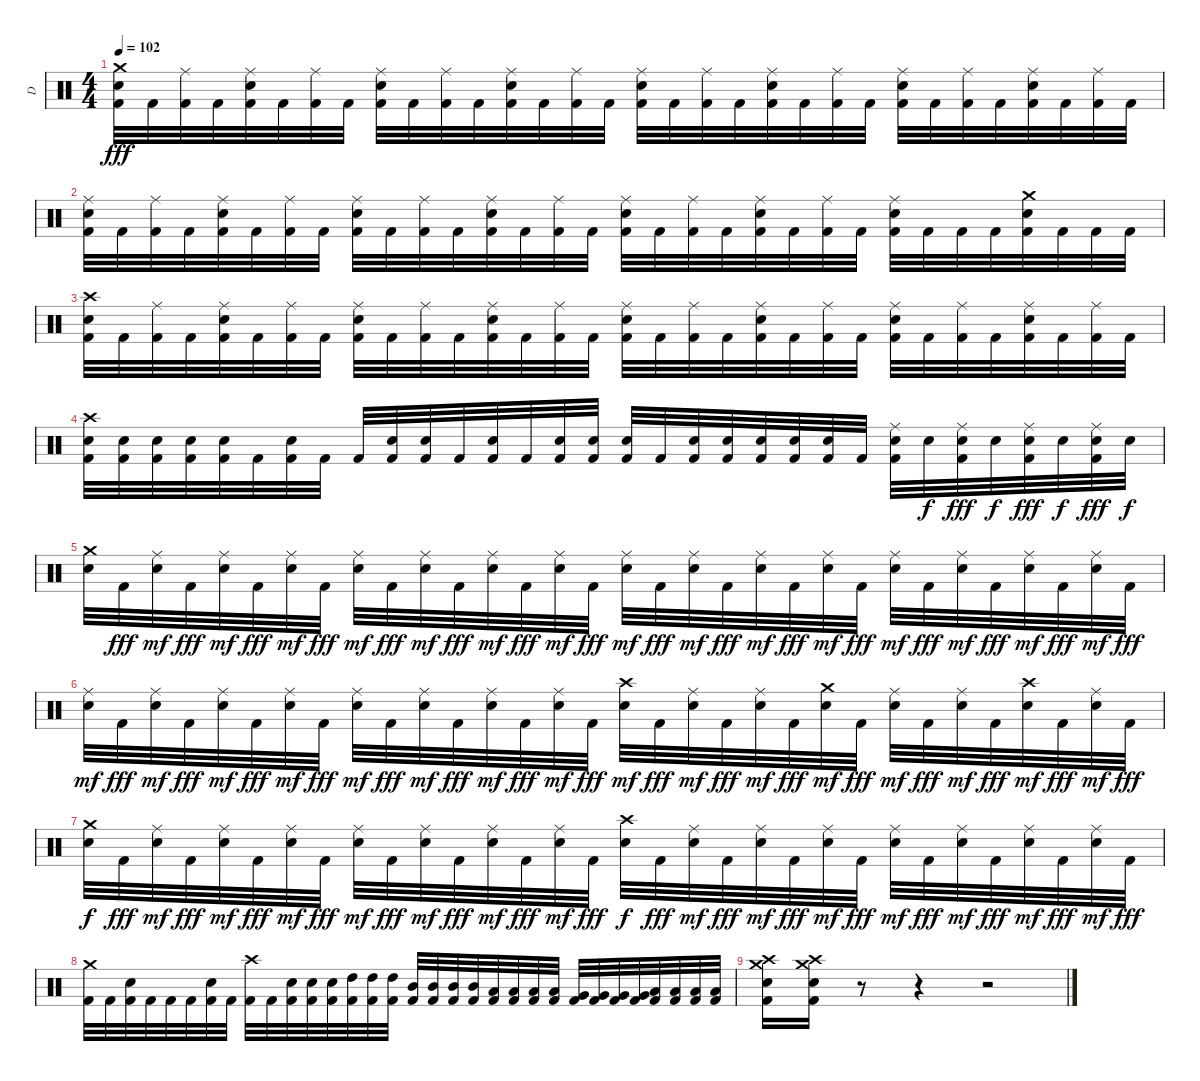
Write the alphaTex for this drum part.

\track ("D" "D") {instrument percussion}
\staff {score}
\articulation defaults
\ts (4 4)
\section ("" "")
\tempo 102
\clef neutral
\ks c
("Crash medium (hit)" "Snare (hit) 2" "Kick (hit) 2").32{dy fff} "Kick (hit) 2".32 ("Ride (middle)" "Kick (hit) 2").32 "Kick (hit) 2".32 ("Ride (middle)" "Snare (hit) 2" "Kick (hit) 2").32 "Kick (hit) 2".32 ("Ride (middle)" "Kick (hit) 2").32 "Kick (hit) 2".32 ("Ride (middle)" "Snare (hit) 2" "Kick (hit) 2").32 "Kick (hit) 2".32 ("Ride (middle)" "Kick (hit) 2").32 "Kick (hit) 2".32 ("Ride (middle)" "Snare (hit) 2" "Kick (hit) 2").32 "Kick (hit) 2".32 ("Ride (middle)" "Kick (hit) 2").32 "Kick (hit) 2".32 ("Ride (middle)" "Snare (hit) 2" "Kick (hit) 2").32 "Kick (hit) 2".32 ("Ride (middle)" "Kick (hit) 2").32 "Kick (hit) 2".32 ("Ride (middle)" "Snare (hit) 2" "Kick (hit) 2").32 "Kick (hit) 2".32 ("Ride (middle)" "Kick (hit) 2").32 "Kick (hit) 2".32 ("Ride (middle)" "Snare (hit) 2" "Kick (hit) 2").32 "Kick (hit) 2".32 ("Ride (middle)" "Kick (hit) 2").32 "Kick (hit) 2".32 ("Ride (middle)" "Snare (hit) 2" "Kick (hit) 2").32 "Kick (hit) 2".32 ("Ride (middle)" "Kick (hit) 2").32 "Kick (hit) 2".32 |
("Ride (middle)" "Snare (hit) 2" "Kick (hit) 2").32 "Kick (hit) 2".32 ("Ride (middle)" "Kick (hit) 2").32 "Kick (hit) 2".32 ("Ride (middle)" "Snare (hit) 2" "Kick (hit) 2").32 "Kick (hit) 2".32 ("Ride (middle)" "Kick (hit) 2").32 "Kick (hit) 2".32 ("Ride (middle)" "Snare (hit) 2" "Kick (hit) 2").32 "Kick (hit) 2".32 ("Ride (middle)" "Kick (hit) 2").32 "Kick (hit) 2".32 ("Ride (middle)" "Snare (hit) 2" "Kick (hit) 2").32 "Kick (hit) 2".32 ("Ride (middle)" "Kick (hit) 2").32 "Kick (hit) 2".32 ("Ride (middle)" "Snare (hit) 2" "Kick (hit) 2").32 "Kick (hit) 2".32 ("Ride (middle)" "Kick (hit) 2").32 "Kick (hit) 2".32 ("Ride (middle)" "Snare (hit) 2" "Kick (hit) 2").32 "Kick (hit) 2".32 ("Ride (middle)" "Kick (hit) 2").32 "Kick (hit) 2".32 ("Ride (middle)" "Snare (hit) 2" "Kick (hit) 2").32 "Kick (hit) 2".32 "Kick (hit) 2".32 "Kick (hit) 2".32 ("Crash medium (hit)" "Snare (hit) 2" "Kick (hit) 2").32 "Kick (hit) 2".32 "Kick (hit) 2".32 "Kick (hit) 2".32 |
("Crash high (hit)" "Snare (hit) 2" "Kick (hit) 2").32 "Kick (hit) 2".32 ("Ride (middle)" "Kick (hit) 2").32 "Kick (hit) 2".32 ("Ride (middle)" "Snare (hit) 2" "Kick (hit) 2").32 "Kick (hit) 2".32 ("Ride (middle)" "Kick (hit) 2").32 "Kick (hit) 2".32 ("Ride (middle)" "Snare (hit) 2" "Kick (hit) 2").32 "Kick (hit) 2".32 ("Ride (middle)" "Kick (hit) 2").32 "Kick (hit) 2".32 ("Ride (middle)" "Snare (hit) 2" "Kick (hit) 2").32 "Kick (hit) 2".32 ("Ride (middle)" "Kick (hit) 2").32 "Kick (hit) 2".32 ("Ride (middle)" "Snare (hit) 2" "Kick (hit) 2").32 "Kick (hit) 2".32 ("Ride (middle)" "Kick (hit) 2").32 "Kick (hit) 2".32 ("Ride (middle)" "Snare (hit) 2" "Kick (hit) 2").32 "Kick (hit) 2".32 ("Ride (middle)" "Kick (hit) 2").32 "Kick (hit) 2".32 ("Ride (middle)" "Snare (hit) 2" "Kick (hit) 2").32 "Kick (hit) 2".32 ("Ride (middle)" "Kick (hit) 2").32 "Kick (hit) 2".32 ("Ride (middle)" "Snare (hit) 2" "Kick (hit) 2").32 "Kick (hit) 2".32 ("Ride (middle)" "Kick (hit) 2").32 "Kick (hit) 2".32 |
("Crash high (hit)" "Snare (hit) 2" "Kick (hit) 2").32 ("Snare (hit) 2" "Kick (hit) 2").32 ("Snare (hit) 2" "Kick (hit) 2").32 ("Snare (hit) 2" "Kick (hit) 2").32 ("Snare (hit) 2" "Kick (hit) 2").32 "Kick (hit) 2".32 ("Snare (hit) 2" "Kick (hit) 2").32 "Kick (hit) 2".32 "Kick (hit) 2".32 ("Snare (hit) 2" "Kick (hit) 2").32 ("Snare (hit) 2" "Kick (hit) 2").32 "Kick (hit) 2".32 ("Snare (hit) 2" "Kick (hit) 2").32 "Kick (hit) 2".32 ("Snare (hit) 2" "Kick (hit) 2").32 ("Snare (hit) 2" "Kick (hit) 2").32 ("Snare (hit) 2" "Kick (hit) 2").32 "Kick (hit) 2".32 ("Snare (hit) 2" "Kick (hit) 2").32 ("Snare (hit) 2" "Kick (hit) 2").32 ("Snare (hit) 2" "Kick (hit) 2").32 ("Snare (hit) 2" "Kick (hit) 2").32 ("Snare (hit) 2" "Kick (hit) 2").32 "Kick (hit) 2".32 ("Ride (middle)" "Snare (hit) 2" "Kick (hit) 2").32 "Snare (hit) 2".32{dy f} ("Ride (middle)" "Snare (hit) 2" "Kick (hit) 2").32{dy fff} "Snare (hit) 2".32{dy f} ("Ride (middle)" "Snare (hit) 2" "Kick (hit) 2").32{dy fff} "Snare (hit) 2".32{dy f} ("Ride (middle)" "Snare (hit) 2" "Kick (hit) 2").32{dy fff} "Snare (hit) 2".32{dy f} |
("Crash medium (hit)" "Snare (hit) 2").32 "Kick (hit) 2".32{dy fff} ("Ride (middle)" "Snare (hit) 2").32{dy mf} "Kick (hit) 2".32{dy fff} ("Ride (middle)" "Snare (hit) 2").32{dy mf} "Kick (hit) 2".32{dy fff} ("Ride (middle)" "Snare (hit) 2").32{dy mf} "Kick (hit) 2".32{dy fff} ("Ride (middle)" "Snare (hit) 2").32{dy mf} "Kick (hit) 2".32{dy fff} ("Ride (middle)" "Snare (hit) 2").32{dy mf} "Kick (hit) 2".32{dy fff} ("Ride (middle)" "Snare (hit) 2").32{dy mf} "Kick (hit) 2".32{dy fff} ("Ride (middle)" "Snare (hit) 2").32{dy mf} "Kick (hit) 2".32{dy fff} ("Ride (middle)" "Snare (hit) 2").32{dy mf} "Kick (hit) 2".32{dy fff} ("Ride (middle)" "Snare (hit) 2").32{dy mf} "Kick (hit) 2".32{dy fff} ("Ride (middle)" "Snare (hit) 2").32{dy mf} "Kick (hit) 2".32{dy fff} ("Ride (middle)" "Snare (hit) 2").32{dy mf} "Kick (hit) 2".32{dy fff} ("Ride (middle)" "Snare (hit) 2").32{dy mf} "Kick (hit) 2".32{dy fff} ("Ride (middle)" "Snare (hit) 2").32{dy mf} "Kick (hit) 2".32{dy fff} ("Ride (middle)" "Snare (hit) 2").32{dy mf} "Kick (hit) 2".32{dy fff} ("Ride (middle)" "Snare (hit) 2").32{dy mf} "Kick (hit) 2".32{dy fff} |
("Ride (middle)" "Snare (hit) 2").32{dy mf} "Kick (hit) 2".32{dy fff} ("Ride (middle)" "Snare (hit) 2").32{dy mf} "Kick (hit) 2".32{dy fff} ("Ride (middle)" "Snare (hit) 2").32{dy mf} "Kick (hit) 2".32{dy fff} ("Ride (middle)" "Snare (hit) 2").32{dy mf} "Kick (hit) 2".32{dy fff} ("Ride (middle)" "Snare (hit) 2").32{dy mf} "Kick (hit) 2".32{dy fff} ("Ride (middle)" "Snare (hit) 2").32{dy mf} "Kick (hit) 2".32{dy fff} ("Ride (middle)" "Snare (hit) 2").32{dy mf} "Kick (hit) 2".32{dy fff} ("Ride (middle)" "Snare (hit) 2").32{dy mf} "Kick (hit) 2".32{dy fff} ("Crash high (hit)" "Snare (hit) 2").32{dy mf} "Kick (hit) 2".32{dy fff} ("Ride (middle)" "Snare (hit) 2").32{dy mf} "Kick (hit) 2".32{dy fff} ("Ride (middle)" "Snare (hit) 2").32{dy mf} "Kick (hit) 2".32{dy fff} ("Crash medium (hit)" "Snare (hit) 2").32{dy mf} "Kick (hit) 2".32{dy fff} ("Ride (middle)" "Snare (hit) 2").32{dy mf} "Kick (hit) 2".32{dy fff} ("Ride (middle)" "Snare (hit) 2").32{dy mf} "Kick (hit) 2".32{dy fff} ("Crash high (hit)" "Snare (hit) 2").32{dy mf} "Kick (hit) 2".32{dy fff} ("Ride (middle)" "Snare (hit) 2").32{dy mf} "Kick (hit) 2".32{dy fff} |
("Crash medium (hit)" "Snare (hit) 2").32{dy f} "Kick (hit) 2".32{dy fff} ("Ride (middle)" "Snare (hit) 2").32{dy mf} "Kick (hit) 2".32{dy fff} ("Ride (middle)" "Snare (hit) 2").32{dy mf} "Kick (hit) 2".32{dy fff} ("Ride (middle)" "Snare (hit) 2").32{dy mf} "Kick (hit) 2".32{dy fff} ("Ride (middle)" "Snare (hit) 2").32{dy mf} "Kick (hit) 2".32{dy fff} ("Ride (middle)" "Snare (hit) 2").32{dy mf} "Kick (hit) 2".32{dy fff} ("Ride (middle)" "Snare (hit) 2").32{dy mf} "Kick (hit) 2".32{dy fff} ("Ride (middle)" "Snare (hit) 2").32{dy mf} "Kick (hit) 2".32{dy fff} ("Crash high (hit)" "Snare (hit) 2").32{dy f} "Kick (hit) 2".32{dy fff} ("Ride (middle)" "Snare (hit) 2").32{dy mf} "Kick (hit) 2".32{dy fff} ("Ride (middle)" "Snare (hit) 2").32{dy mf} "Kick (hit) 2".32{dy fff} ("Ride (middle)" "Snare (hit) 2").32{dy mf} "Kick (hit) 2".32{dy fff} ("Ride (middle)" "Snare (hit) 2").32{dy mf} "Kick (hit) 2".32{dy fff} ("Ride (middle)" "Snare (hit) 2").32{dy mf} "Kick (hit) 2".32{dy fff} ("Ride (middle)" "Snare (hit) 2").32{dy mf} "Kick (hit) 2".32{dy fff} ("Ride (middle)" "Snare (hit) 2").32{dy mf} "Kick (hit) 2".32{dy fff} |
("Crash medium (hit)" "Kick (hit) 2").32 "Kick (hit) 2".32 ("Snare (hit) 2" "Kick (hit) 2").32 "Kick (hit) 2".32 "Kick (hit) 2".32 "Kick (hit) 2".32 ("Snare (hit) 2" "Kick (hit) 2").32 "Kick (hit) 2".32 ("Crash high (hit)" "Kick (hit) 2").32 "Kick (hit) 2".32 ("Snare (hit) 2" "Kick (hit) 2").32 ("Snare (hit) 2" "Kick (hit) 2").32 ("Snare (hit) 2" "Kick (hit) 2").32 ("High Tom (hit)" "Kick (hit) 2").32 ("High Tom (hit)" "Kick (hit) 2").32 ("High Tom (hit)" "Kick (hit) 2").32 ("Mid Tom (hit)" "Kick (hit) 2").32 ("Mid Tom (hit)" "Kick (hit) 2").32 ("Mid Tom (hit)" "Kick (hit) 2").32 ("Mid Tom (hit)" "Kick (hit) 2").32 ("Low Tom (hit)" "Kick (hit) 2").32 ("Low Tom (hit)" "Kick (hit) 2").32 ("Low Tom (hit)" "Kick (hit) 2").32 ("Low Tom (hit)" "Kick (hit) 2").32 ("Very Low Tom (hit)" "Kick (hit) 2").32 ("Very Low Tom (hit)" "Kick (hit) 2").32 ("Very Low Tom (hit)" "Kick (hit) 2").32 ("Very Low Tom (hit)" "Kick (hit) 2").32 ("Low Floor Tom (hit)" "Kick (hit) 2").32 ("Low Floor Tom (hit)" "Kick (hit) 2").32 ("Low Floor Tom (hit)" "Kick (hit) 2").32 ("Low Floor Tom (hit)" "Kick (hit) 2").32 |
("Crash medium (hit)" "Crash high (hit)" "Snare (hit) 2" "Kick (hit) 2").16 ("Crash medium (hit)" "Crash high (hit)" "Snare (hit) 2" "Kick (hit) 2").16 r.8 r.4 r.2
